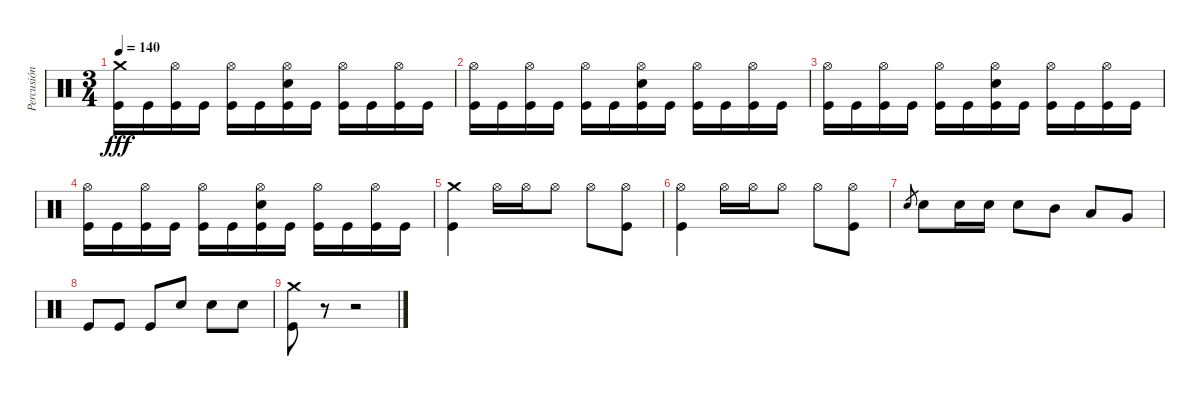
\track ("Percusión" "Percusión") {instrument percussion}
\staff {score}
\articulation defaults
\ts (3 4)
\tempo 140
\clef neutral
\ks c
("Crash medium (hit)" "Kick (hit)").16{dy fff} "Kick (hit)".16 ("Hi-Hat (open)" "Kick (hit)").16 "Kick (hit)".16 ("Hi-Hat (open)" "Kick (hit)").16 "Kick (hit)".16 ("Hi-Hat (open)" "Snare (hit) 2" "Kick (hit)").16 "Kick (hit)".16 ("Hi-Hat (open)" "Kick (hit)").16 "Kick (hit)".16 ("Hi-Hat (open)" "Kick (hit)").16 "Kick (hit)".16 |
("Hi-Hat (open)" "Kick (hit)").16 "Kick (hit)".16 ("Hi-Hat (open)" "Kick (hit)").16 "Kick (hit)".16 ("Hi-Hat (open)" "Kick (hit)").16 "Kick (hit)".16 ("Hi-Hat (open)" "Snare (hit) 2" "Kick (hit)").16 "Kick (hit)".16 ("Hi-Hat (open)" "Kick (hit)").16 "Kick (hit)".16 ("Hi-Hat (open)" "Kick (hit)").16 "Kick (hit)".16 |
("Hi-Hat (open)" "Kick (hit)").16 "Kick (hit)".16 ("Hi-Hat (open)" "Kick (hit)").16 "Kick (hit)".16 ("Hi-Hat (open)" "Kick (hit)").16 "Kick (hit)".16 ("Hi-Hat (open)" "Snare (hit) 2" "Kick (hit)").16 "Kick (hit)".16 ("Hi-Hat (open)" "Kick (hit)").16 "Kick (hit)".16 ("Hi-Hat (open)" "Kick (hit)").16 "Kick (hit)".16 |
("Hi-Hat (open)" "Kick (hit)").16 "Kick (hit)".16 ("Hi-Hat (open)" "Kick (hit)").16 "Kick (hit)".16 ("Hi-Hat (open)" "Kick (hit)").16 "Kick (hit)".16 ("Hi-Hat (open)" "Snare (hit) 2" "Kick (hit)").16 "Kick (hit)".16 ("Hi-Hat (open)" "Kick (hit)").16 "Kick (hit)".16 ("Hi-Hat (open)" "Kick (hit)").16 "Kick (hit)".16 |
("Crash medium (hit)" "Kick (hit)").4 "Hi-Hat (open)".16 "Hi-Hat (open)".16 "Hi-Hat (open)".8 "Hi-Hat (open)".8 ("Hi-Hat (open)" "Kick (hit)").8 |
("Hi-Hat (open)" "Kick (hit)").4 "Hi-Hat (open)".16 "Hi-Hat (open)".16 "Hi-Hat (open)".8 "Hi-Hat (open)".8 ("Hi-Hat (open)" "Kick (hit)").8 |
"Snare (hit) 2".8{gr} "Snare (hit) 2".8 "Snare (hit) 2".16 "Snare (hit) 2".16 "Snare (hit) 2".8 "Mid Tom (hit)".8 "Low Tom (hit)".8 "Very Low Tom (hit)".8 |
"Kick (hit)".8 "Kick (hit)".8 "Kick (hit)".8 "Snare (hit) 2".8 "Snare (hit) 2".8 "Snare (hit) 2".8 |
("Crash medium (hit)" "Kick (hit)").8 r.8 r.2
